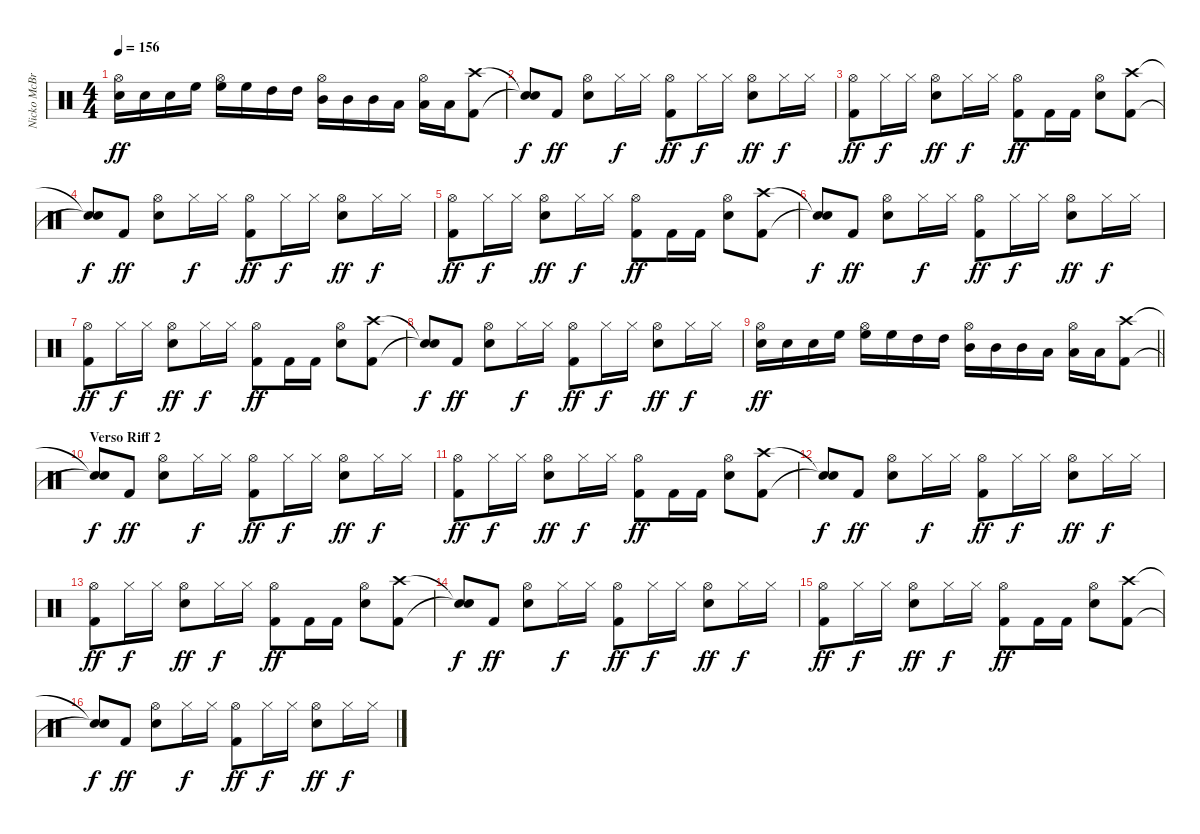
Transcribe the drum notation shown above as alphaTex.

\track ("Nicko McBrain" "Nicko McBr") {instrument percussion}
\staff {score}
\articulation defaults
\ts (4 4)
\tempo 156
\clef neutral
\ks c
("Snare (hit) 2" "Hi-Hat (open)").16{dy ff} "Snare (hit) 2".16 "Snare (hit) 2".16 "High Floor Tom (hit)".16 ("Hi-Hat (open)" "High Floor Tom (hit)").16 "High Floor Tom (hit)".16 "High Tom (hit)".16 "High Tom (hit)".16 ("Hi-Hat (open)" "Mid Tom (hit)").16 "Mid Tom (hit)".16 "Mid Tom (hit)".16 "Low Tom (hit)".16 ("Low Tom (hit)" "Hi-Hat (open)").16 "Low Tom (hit)".16 ("Kick (hit) 2" "Crash high (hit)").8 |
("Snare (hit)"{t} "Snare (hit)"{t}).8{dy f} "Kick (hit) 2".8{dy ff} ("Snare (hit) 2" "Hi-Hat (open)").8 "Hi-Hat (closed)".16{dy f} "Hi-Hat (closed)".16 ("Kick (hit) 2" "Hi-Hat (open)").8{dy ff} "Hi-Hat (closed)".16{dy f} "Hi-Hat (closed)".16 ("Snare (hit) 2" "Hi-Hat (open)").8{dy ff} "Hi-Hat (closed)".16{dy f} "Hi-Hat (closed)".16 |
("Kick (hit) 2" "Hi-Hat (open)").8{dy ff} "Hi-Hat (closed)".16{dy f} "Hi-Hat (closed)".16 ("Snare (hit) 2" "Hi-Hat (open)").8{dy ff} "Hi-Hat (closed)".16{dy f} "Hi-Hat (closed)".16 ("Kick (hit) 2" "Hi-Hat (open)").8{dy ff} "Kick (hit) 2".16 "Kick (hit) 2".16 ("Snare (hit) 2" "Hi-Hat (open)").8 ("Kick (hit) 2" "Crash high (hit)").8 |
("Snare (hit)"{t} "Snare (hit)"{t}).8{dy f} "Kick (hit) 2".8{dy ff} ("Snare (hit) 2" "Hi-Hat (open)").8 "Hi-Hat (closed)".16{dy f} "Hi-Hat (closed)".16 ("Kick (hit) 2" "Hi-Hat (open)").8{dy ff} "Hi-Hat (closed)".16{dy f} "Hi-Hat (closed)".16 ("Snare (hit) 2" "Hi-Hat (open)").8{dy ff} "Hi-Hat (closed)".16{dy f} "Hi-Hat (closed)".16 |
("Kick (hit) 2" "Hi-Hat (open)").8{dy ff} "Hi-Hat (closed)".16{dy f} "Hi-Hat (closed)".16 ("Snare (hit) 2" "Hi-Hat (open)").8{dy ff} "Hi-Hat (closed)".16{dy f} "Hi-Hat (closed)".16 ("Kick (hit) 2" "Hi-Hat (open)").8{dy ff} "Kick (hit) 2".16 "Kick (hit) 2".16 ("Snare (hit) 2" "Hi-Hat (open)").8 ("Kick (hit) 2" "Crash high (hit)").8 |
("Snare (hit)"{t} "Snare (hit)"{t}).8{dy f} "Kick (hit) 2".8{dy ff} ("Snare (hit) 2" "Hi-Hat (open)").8 "Hi-Hat (closed)".16{dy f} "Hi-Hat (closed)".16 ("Kick (hit) 2" "Hi-Hat (open)").8{dy ff} "Hi-Hat (closed)".16{dy f} "Hi-Hat (closed)".16 ("Snare (hit) 2" "Hi-Hat (open)").8{dy ff} "Hi-Hat (closed)".16{dy f} "Hi-Hat (closed)".16 |
("Kick (hit) 2" "Hi-Hat (open)").8{dy ff} "Hi-Hat (closed)".16{dy f} "Hi-Hat (closed)".16 ("Snare (hit) 2" "Hi-Hat (open)").8{dy ff} "Hi-Hat (closed)".16{dy f} "Hi-Hat (closed)".16 ("Kick (hit) 2" "Hi-Hat (open)").8{dy ff} "Kick (hit) 2".16 "Kick (hit) 2".16 ("Snare (hit) 2" "Hi-Hat (open)").8 ("Kick (hit) 2" "Crash high (hit)").8 |
("Snare (hit)"{t} "Snare (hit)"{t}).8{dy f} "Kick (hit) 2".8{dy ff} ("Snare (hit) 2" "Hi-Hat (open)").8 "Hi-Hat (closed)".16{dy f} "Hi-Hat (closed)".16 ("Kick (hit) 2" "Hi-Hat (open)").8{dy ff} "Hi-Hat (closed)".16{dy f} "Hi-Hat (closed)".16 ("Snare (hit) 2" "Hi-Hat (open)").8{dy ff} "Hi-Hat (closed)".16{dy f} "Hi-Hat (closed)".16 |
\barLineRight lightlight
("Snare (hit) 2" "Hi-Hat (open)").16{dy ff} "Snare (hit) 2".16 "Snare (hit) 2".16 "High Floor Tom (hit)".16 ("Hi-Hat (open)" "High Floor Tom (hit)").16 "High Floor Tom (hit)".16 "High Tom (hit)".16 "High Tom (hit)".16 ("Hi-Hat (open)" "Mid Tom (hit)").16 "Mid Tom (hit)".16 "Mid Tom (hit)".16 "Low Tom (hit)".16 ("Low Tom (hit)" "Hi-Hat (open)").16 "Low Tom (hit)".16 ("Kick (hit) 2" "Crash high (hit)").8 |
\section ("" "Verso Riff 2")
("Snare (hit)"{t} "Snare (hit)"{t}).8{dy f} "Kick (hit) 2".8{dy ff} ("Snare (hit) 2" "Hi-Hat (open)").8 "Hi-Hat (closed)".16{dy f} "Hi-Hat (closed)".16 ("Kick (hit) 2" "Hi-Hat (open)").8{dy ff} "Hi-Hat (closed)".16{dy f} "Hi-Hat (closed)".16 ("Snare (hit) 2" "Hi-Hat (open)").8{dy ff} "Hi-Hat (closed)".16{dy f} "Hi-Hat (closed)".16 |
("Kick (hit) 2" "Hi-Hat (open)").8{dy ff} "Hi-Hat (closed)".16{dy f} "Hi-Hat (closed)".16 ("Snare (hit) 2" "Hi-Hat (open)").8{dy ff} "Hi-Hat (closed)".16{dy f} "Hi-Hat (closed)".16 ("Kick (hit) 2" "Hi-Hat (open)").8{dy ff} "Kick (hit) 2".16 "Kick (hit) 2".16 ("Snare (hit) 2" "Hi-Hat (open)").8 ("Kick (hit) 2" "Crash high (hit)").8 |
("Snare (hit)"{t} "Snare (hit)"{t}).8{dy f} "Kick (hit) 2".8{dy ff} ("Snare (hit) 2" "Hi-Hat (open)").8 "Hi-Hat (closed)".16{dy f} "Hi-Hat (closed)".16 ("Kick (hit) 2" "Hi-Hat (open)").8{dy ff} "Hi-Hat (closed)".16{dy f} "Hi-Hat (closed)".16 ("Snare (hit) 2" "Hi-Hat (open)").8{dy ff} "Hi-Hat (closed)".16{dy f} "Hi-Hat (closed)".16 |
("Kick (hit) 2" "Hi-Hat (open)").8{dy ff} "Hi-Hat (closed)".16{dy f} "Hi-Hat (closed)".16 ("Snare (hit) 2" "Hi-Hat (open)").8{dy ff} "Hi-Hat (closed)".16{dy f} "Hi-Hat (closed)".16 ("Kick (hit) 2" "Hi-Hat (open)").8{dy ff} "Kick (hit) 2".16 "Kick (hit) 2".16 ("Snare (hit) 2" "Hi-Hat (open)").8 ("Kick (hit) 2" "Crash high (hit)").8 |
("Snare (hit)"{t} "Snare (hit)"{t}).8{dy f} "Kick (hit) 2".8{dy ff} ("Snare (hit) 2" "Hi-Hat (open)").8 "Hi-Hat (closed)".16{dy f} "Hi-Hat (closed)".16 ("Kick (hit) 2" "Hi-Hat (open)").8{dy ff} "Hi-Hat (closed)".16{dy f} "Hi-Hat (closed)".16 ("Snare (hit) 2" "Hi-Hat (open)").8{dy ff} "Hi-Hat (closed)".16{dy f} "Hi-Hat (closed)".16 |
("Kick (hit) 2" "Hi-Hat (open)").8{dy ff} "Hi-Hat (closed)".16{dy f} "Hi-Hat (closed)".16 ("Snare (hit) 2" "Hi-Hat (open)").8{dy ff} "Hi-Hat (closed)".16{dy f} "Hi-Hat (closed)".16 ("Kick (hit) 2" "Hi-Hat (open)").8{dy ff} "Kick (hit) 2".16 "Kick (hit) 2".16 ("Snare (hit) 2" "Hi-Hat (open)").8 ("Kick (hit) 2" "Crash high (hit)").8 |
("Snare (hit)"{t} "Snare (hit)"{t}).8{dy f} "Kick (hit) 2".8{dy ff} ("Snare (hit) 2" "Hi-Hat (open)").8 "Hi-Hat (closed)".16{dy f} "Hi-Hat (closed)".16 ("Kick (hit) 2" "Hi-Hat (open)").8{dy ff} "Hi-Hat (closed)".16{dy f} "Hi-Hat (closed)".16 ("Snare (hit) 2" "Hi-Hat (open)").8{dy ff} "Hi-Hat (closed)".16{dy f} "Hi-Hat (closed)".16
